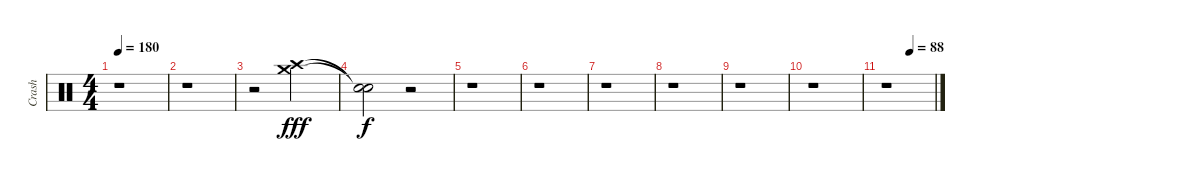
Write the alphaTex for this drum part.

\track ("Crash" "Crash") {instrument percussion}
\staff {score}
\articulation defaults
\ts (4 4)
\tempo 180
\clef neutral
\ks c
r.1{dy f} |
r.1 |
r.2 ("Crash high (hit)" "Crash medium (hit)").2{dy fff} |
("Snare (hit)"{t} "Snare (hit)"{t}).2{dy f} r.2 |
r.1 |
r.1 |
r.1 |
r.1 |
r.1 |
r.1 |
\tempo (88 0.5)
r.1
